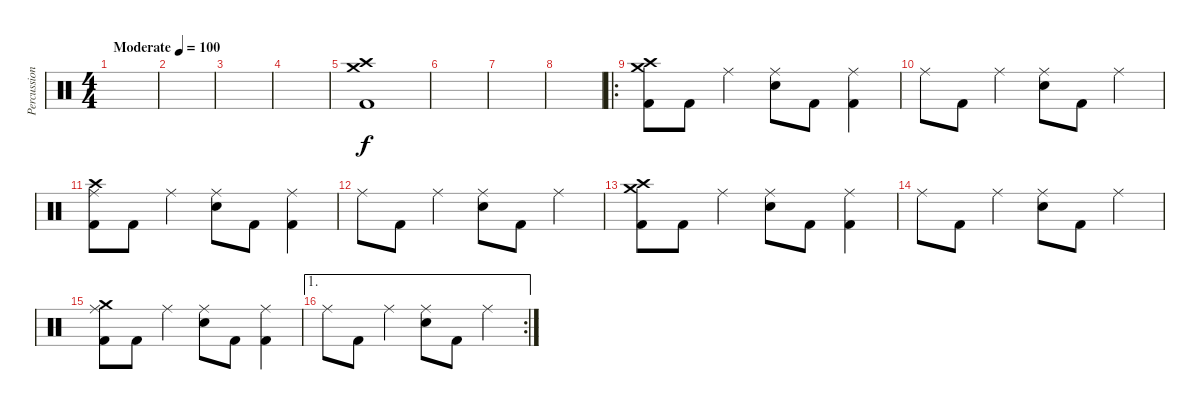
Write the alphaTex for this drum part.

\track ("Percussion" "Percussion") {instrument percussion}
\staff {score}
\articulation defaults
\ts (4 4)
\tempo (100 "Moderate")
\clef neutral
\ks c
|
|
|
|
("Crash high (hit)" "Crash medium (hit)" "Kick (hit) 2").1 |
|
|
|
\ro
("Crash high (hit)" "Crash medium (hit)" "Kick (hit) 2").8 "Kick (hit) 2".8 "Ride (middle)".4 ("Ride (middle)" "Snare (hit) 2").8 "Kick (hit) 2".8 ("Ride (middle)" "Kick (hit) 2").4 |
"Ride (middle)".8 "Kick (hit) 2".8 "Ride (middle)".4 ("Ride (middle)" "Snare (hit) 2").8 "Kick (hit) 2".8 "Ride (middle)".4 |
("Ride (middle)" "Crash high (hit)" "Kick (hit) 2").8 "Kick (hit) 2".8 "Ride (middle)".4 ("Ride (middle)" "Snare (hit) 2").8 "Kick (hit) 2".8 ("Ride (middle)" "Kick (hit) 2").4 |
"Ride (middle)".8 "Kick (hit) 2".8 "Ride (middle)".4 ("Ride (middle)" "Snare (hit) 2").8 "Kick (hit) 2".8 "Ride (middle)".4 |
("Crash high (hit)" "Crash medium (hit)" "Kick (hit) 2").8 "Kick (hit) 2".8 "Ride (middle)".4 ("Ride (middle)" "Snare (hit) 2").8 "Kick (hit) 2".8 ("Ride (middle)" "Kick (hit) 2").4 |
"Ride (middle)".8 "Kick (hit) 2".8 "Ride (middle)".4 ("Ride (middle)" "Snare (hit) 2").8 "Kick (hit) 2".8 "Ride (middle)".4 |
("Ride (middle)" "Crash medium (hit)" "Kick (hit) 2").8 "Kick (hit) 2".8 "Ride (middle)".4 ("Ride (middle)" "Snare (hit) 2").8 "Kick (hit) 2".8 ("Ride (middle)" "Kick (hit) 2").4 |
\ae 1
\rc 2 "Ride (middle)".8 "Kick (hit) 2".8 "Ride (middle)".4
("Ride (middle)" "Snare (hit) 2").8 "Kick (hit) 2".8 "Ride (middle)".4
